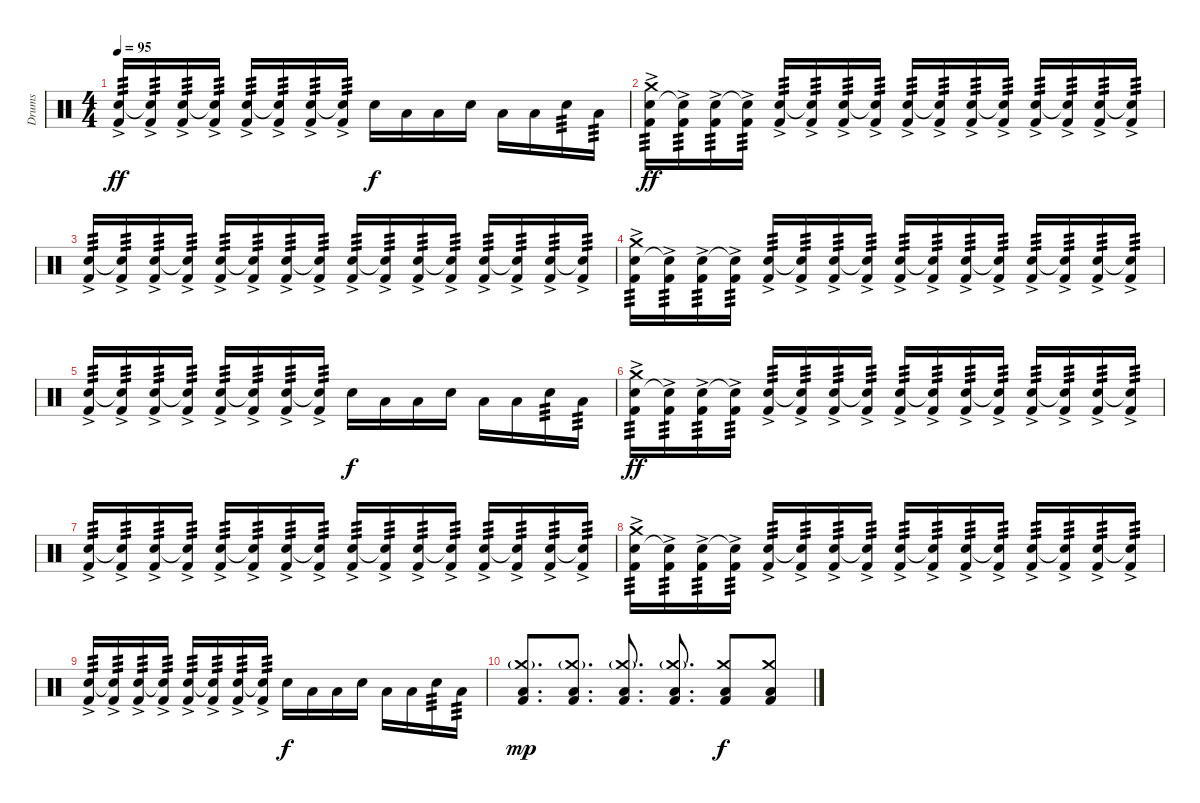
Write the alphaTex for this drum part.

\track ("Drums" "Drums") {instrument percussion}
\staff {score}
\articulation defaults
\ts (4 4)
\tempo 95
\clef neutral
\ks c
("Snare (hit) 2" "Kick (hit) 2"{ac}).16{tp 3 dy ff} ("Snare (hit) 2"{t} "Kick (hit) 2"{ac}).16{tp 3} ("Snare (hit) 2" "Kick (hit) 2"{ac}).16{tp 3} ("Snare (hit) 2"{t} "Kick (hit) 2"{ac}).16{tp 3} ("Snare (hit) 2" "Kick (hit) 2"{ac}).16{tp 3} ("Snare (hit) 2"{t} "Kick (hit) 2"{ac}).16{tp 3} ("Snare (hit) 2" "Kick (hit) 2"{ac}).16{tp 3} ("Snare (hit) 2"{t} "Kick (hit) 2"{ac}).16{tp 3} "Snare (hit) 2".16{dy f} "Low Tom (hit)".16 "Low Tom (hit)".16 "Snare (hit) 2".16 "Low Tom (hit)".16 "Low Tom (hit)".16 "Snare (hit) 2".16{tp 3} "Low Tom (hit)".16{tp 3} |
("Snare (hit) 2" "Kick (hit) 2"{ac} "Crash medium (hit)").16{tp 3 dy ff} ("Snare (hit) 2"{t} "Kick (hit) 2"{ac}).16{tp 3} ("Snare (hit) 2" "Kick (hit) 2"{ac}).16{tp 3} ("Snare (hit) 2"{t} "Kick (hit) 2"{ac}).16{tp 3} ("Snare (hit) 2" "Kick (hit) 2"{ac}).16{tp 3} ("Snare (hit) 2"{t} "Kick (hit) 2"{ac}).16{tp 3} ("Snare (hit) 2" "Kick (hit) 2"{ac}).16{tp 3} ("Snare (hit) 2"{t} "Kick (hit) 2"{ac}).16{tp 3} ("Snare (hit) 2" "Kick (hit) 2"{ac}).16{tp 3} ("Snare (hit) 2"{t} "Kick (hit) 2"{ac}).16{tp 3} ("Snare (hit) 2" "Kick (hit) 2"{ac}).16{tp 3} ("Snare (hit) 2"{t} "Kick (hit) 2"{ac}).16{tp 3} ("Snare (hit) 2" "Kick (hit) 2"{ac}).16{tp 3} ("Snare (hit) 2"{t} "Kick (hit) 2"{ac}).16{tp 3} ("Snare (hit) 2" "Kick (hit) 2"{ac}).16{tp 3} ("Snare (hit) 2"{t} "Kick (hit) 2"{ac}).16{tp 3} |
("Snare (hit) 2" "Kick (hit) 2"{ac}).16{tp 3} ("Snare (hit) 2"{t} "Kick (hit) 2"{ac}).16{tp 3} ("Snare (hit) 2" "Kick (hit) 2"{ac}).16{tp 3} ("Snare (hit) 2"{t} "Kick (hit) 2"{ac}).16{tp 3} ("Snare (hit) 2" "Kick (hit) 2"{ac}).16{tp 3} ("Snare (hit) 2"{t} "Kick (hit) 2"{ac}).16{tp 3} ("Snare (hit) 2" "Kick (hit) 2"{ac}).16{tp 3} ("Snare (hit) 2"{t} "Kick (hit) 2"{ac}).16{tp 3} ("Snare (hit) 2" "Kick (hit) 2"{ac}).16{tp 3} ("Snare (hit) 2"{t} "Kick (hit) 2"{ac}).16{tp 3} ("Snare (hit) 2" "Kick (hit) 2"{ac}).16{tp 3} ("Snare (hit) 2"{t} "Kick (hit) 2"{ac}).16{tp 3} ("Snare (hit) 2" "Kick (hit) 2"{ac}).16{tp 3} ("Snare (hit) 2"{t} "Kick (hit) 2"{ac}).16{tp 3} ("Snare (hit) 2" "Kick (hit) 2"{ac}).16{tp 3} ("Snare (hit) 2"{t} "Kick (hit) 2"{ac}).16{tp 3} |
("Snare (hit) 2" "Kick (hit) 2"{ac} "Crash medium (hit)").16{tp 3} ("Snare (hit) 2"{t} "Kick (hit) 2"{ac}).16{tp 3} ("Snare (hit) 2" "Kick (hit) 2"{ac}).16{tp 3} ("Snare (hit) 2"{t} "Kick (hit) 2"{ac}).16{tp 3} ("Snare (hit) 2" "Kick (hit) 2"{ac}).16{tp 3} ("Snare (hit) 2"{t} "Kick (hit) 2"{ac}).16{tp 3} ("Snare (hit) 2" "Kick (hit) 2"{ac}).16{tp 3} ("Snare (hit) 2"{t} "Kick (hit) 2"{ac}).16{tp 3} ("Snare (hit) 2" "Kick (hit) 2"{ac}).16{tp 3} ("Snare (hit) 2"{t} "Kick (hit) 2"{ac}).16{tp 3} ("Snare (hit) 2" "Kick (hit) 2"{ac}).16{tp 3} ("Snare (hit) 2"{t} "Kick (hit) 2"{ac}).16{tp 3} ("Snare (hit) 2" "Kick (hit) 2"{ac}).16{tp 3} ("Snare (hit) 2"{t} "Kick (hit) 2"{ac}).16{tp 3} ("Snare (hit) 2" "Kick (hit) 2"{ac}).16{tp 3} ("Snare (hit) 2"{t} "Kick (hit) 2"{ac}).16{tp 3} |
("Snare (hit) 2" "Kick (hit) 2"{ac}).16{tp 3} ("Snare (hit) 2"{t} "Kick (hit) 2"{ac}).16{tp 3} ("Snare (hit) 2" "Kick (hit) 2"{ac}).16{tp 3} ("Snare (hit) 2"{t} "Kick (hit) 2"{ac}).16{tp 3} ("Snare (hit) 2" "Kick (hit) 2"{ac}).16{tp 3} ("Snare (hit) 2"{t} "Kick (hit) 2"{ac}).16{tp 3} ("Snare (hit) 2" "Kick (hit) 2"{ac}).16{tp 3} ("Snare (hit) 2"{t} "Kick (hit) 2"{ac}).16{tp 3} "Snare (hit) 2".16{dy f} "Low Tom (hit)".16 "Low Tom (hit)".16 "Snare (hit) 2".16 "Low Tom (hit)".16 "Low Tom (hit)".16 "Snare (hit) 2".16{tp 3} "Low Tom (hit)".16{tp 3} |
("Snare (hit) 2" "Kick (hit) 2"{ac} "Crash medium (hit)").16{tp 3 dy ff} ("Snare (hit) 2"{t} "Kick (hit) 2"{ac}).16{tp 3} ("Snare (hit) 2" "Kick (hit) 2"{ac}).16{tp 3} ("Snare (hit) 2"{t} "Kick (hit) 2"{ac}).16{tp 3} ("Snare (hit) 2" "Kick (hit) 2"{ac}).16{tp 3} ("Snare (hit) 2"{t} "Kick (hit) 2"{ac}).16{tp 3} ("Snare (hit) 2" "Kick (hit) 2"{ac}).16{tp 3} ("Snare (hit) 2"{t} "Kick (hit) 2"{ac}).16{tp 3} ("Snare (hit) 2" "Kick (hit) 2"{ac}).16{tp 3} ("Snare (hit) 2"{t} "Kick (hit) 2"{ac}).16{tp 3} ("Snare (hit) 2" "Kick (hit) 2"{ac}).16{tp 3} ("Snare (hit) 2"{t} "Kick (hit) 2"{ac}).16{tp 3} ("Snare (hit) 2" "Kick (hit) 2"{ac}).16{tp 3} ("Snare (hit) 2"{t} "Kick (hit) 2"{ac}).16{tp 3} ("Snare (hit) 2" "Kick (hit) 2"{ac}).16{tp 3} ("Snare (hit) 2"{t} "Kick (hit) 2"{ac}).16{tp 3} |
("Snare (hit) 2" "Kick (hit) 2"{ac}).16{tp 3} ("Snare (hit) 2"{t} "Kick (hit) 2"{ac}).16{tp 3} ("Snare (hit) 2" "Kick (hit) 2"{ac}).16{tp 3} ("Snare (hit) 2"{t} "Kick (hit) 2"{ac}).16{tp 3} ("Snare (hit) 2" "Kick (hit) 2"{ac}).16{tp 3} ("Snare (hit) 2"{t} "Kick (hit) 2"{ac}).16{tp 3} ("Snare (hit) 2" "Kick (hit) 2"{ac}).16{tp 3} ("Snare (hit) 2"{t} "Kick (hit) 2"{ac}).16{tp 3} ("Snare (hit) 2" "Kick (hit) 2"{ac}).16{tp 3} ("Snare (hit) 2"{t} "Kick (hit) 2"{ac}).16{tp 3} ("Snare (hit) 2" "Kick (hit) 2"{ac}).16{tp 3} ("Snare (hit) 2"{t} "Kick (hit) 2"{ac}).16{tp 3} ("Snare (hit) 2" "Kick (hit) 2"{ac}).16{tp 3} ("Snare (hit) 2"{t} "Kick (hit) 2"{ac}).16{tp 3} ("Snare (hit) 2" "Kick (hit) 2"{ac}).16{tp 3} ("Snare (hit) 2"{t} "Kick (hit) 2"{ac}).16{tp 3} |
("Snare (hit) 2" "Kick (hit) 2"{ac} "Crash medium (hit)").16{tp 3} ("Snare (hit) 2"{t} "Kick (hit) 2"{ac}).16{tp 3} ("Snare (hit) 2" "Kick (hit) 2"{ac}).16{tp 3} ("Snare (hit) 2"{t} "Kick (hit) 2"{ac}).16{tp 3} ("Snare (hit) 2" "Kick (hit) 2"{ac}).16{tp 3} ("Snare (hit) 2"{t} "Kick (hit) 2"{ac}).16{tp 3} ("Snare (hit) 2" "Kick (hit) 2"{ac}).16{tp 3} ("Snare (hit) 2"{t} "Kick (hit) 2"{ac}).16{tp 3} ("Snare (hit) 2" "Kick (hit) 2"{ac}).16{tp 3} ("Snare (hit) 2"{t} "Kick (hit) 2"{ac}).16{tp 3} ("Snare (hit) 2" "Kick (hit) 2"{ac}).16{tp 3} ("Snare (hit) 2"{t} "Kick (hit) 2"{ac}).16{tp 3} ("Snare (hit) 2" "Kick (hit) 2"{ac}).16{tp 3} ("Snare (hit) 2"{t} "Kick (hit) 2"{ac}).16{tp 3} ("Snare (hit) 2" "Kick (hit) 2"{ac}).16{tp 3} ("Snare (hit) 2"{t} "Kick (hit) 2"{ac}).16{tp 3} |
("Snare (hit) 2" "Kick (hit) 2"{ac}).16{tp 3} ("Snare (hit) 2"{t} "Kick (hit) 2"{ac}).16{tp 3} ("Snare (hit) 2" "Kick (hit) 2"{ac}).16{tp 3} ("Snare (hit) 2"{t} "Kick (hit) 2"{ac}).16{tp 3} ("Snare (hit) 2" "Kick (hit) 2"{ac}).16{tp 3} ("Snare (hit) 2"{t} "Kick (hit) 2"{ac}).16{tp 3} ("Snare (hit) 2" "Kick (hit) 2"{ac}).16{tp 3} ("Snare (hit) 2"{t} "Kick (hit) 2"{ac}).16{tp 3} "Snare (hit) 2".16{dy f} "Low Tom (hit)".16 "Low Tom (hit)".16 "Snare (hit) 2".16 "Low Tom (hit)".16 "Low Tom (hit)".16 "Snare (hit) 2".16{tp 3} "Low Tom (hit)".16{tp 3} |
("Low Floor Tom (hit)" "Kick (hit) 2" "Crash medium (hit)"{g}).8{d dy mp} ("Low Floor Tom (hit)" "Kick (hit) 2" "Crash medium (hit)"{g}).8{d} ("Low Floor Tom (hit)" "Kick (hit) 2" "Crash medium (hit)"{g}).8{d} ("Low Floor Tom (hit)" "Kick (hit) 2" "Crash medium (hit)"{g}).8{d} ("Low Floor Tom (hit)" "Kick (hit) 2" "Crash medium (hit)").8{dy f} ("Low Floor Tom (hit)" "Kick (hit) 2" "Crash medium (hit)").8
